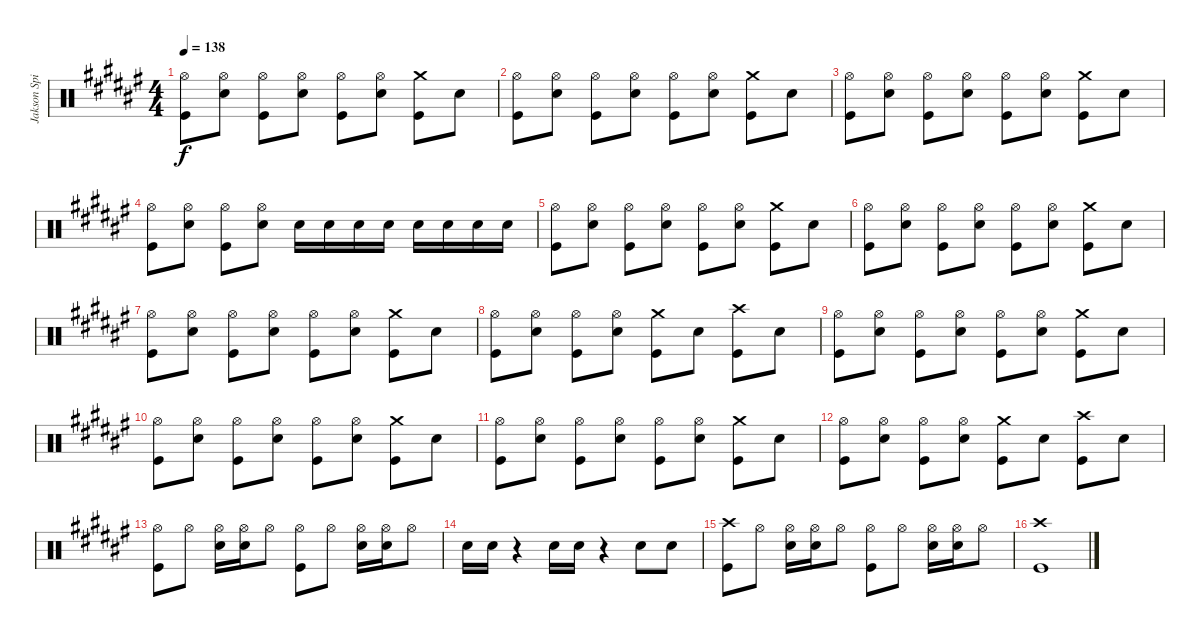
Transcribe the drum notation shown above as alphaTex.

\track ("Jakson Spires" "Jakson Spi") {instrument percussion}
\staff {score}
\articulation defaults
\ts (4 4)
\tempo 138
\clef neutral
\ks f#
("Hi-Hat (open)" "Kick (hit)").8{dy f} ("Hi-Hat (open)" "Snare (hit) 2").8 ("Hi-Hat (open)" "Kick (hit)").8 ("Hi-Hat (open)" "Snare (hit) 2").8 ("Hi-Hat (open)" "Kick (hit)").8 ("Hi-Hat (open)" "Snare (hit) 2").8 ("Crash medium (hit)" "Kick (hit)").8 "Snare (hit) 2".8 |
("Hi-Hat (open)" "Kick (hit)").8 ("Hi-Hat (open)" "Snare (hit) 2").8 ("Hi-Hat (open)" "Kick (hit)").8 ("Hi-Hat (open)" "Snare (hit) 2").8 ("Hi-Hat (open)" "Kick (hit)").8 ("Hi-Hat (open)" "Snare (hit) 2").8 ("Crash medium (hit)" "Kick (hit)").8 "Snare (hit) 2".8 |
("Hi-Hat (open)" "Kick (hit)").8 ("Hi-Hat (open)" "Snare (hit) 2").8 ("Hi-Hat (open)" "Kick (hit)").8 ("Hi-Hat (open)" "Snare (hit) 2").8 ("Hi-Hat (open)" "Kick (hit)").8 ("Hi-Hat (open)" "Snare (hit) 2").8 ("Crash medium (hit)" "Kick (hit)").8 "Snare (hit) 2".8 |
("Hi-Hat (open)" "Kick (hit)").8 ("Hi-Hat (open)" "Snare (hit) 2").8 ("Hi-Hat (open)" "Kick (hit)").8 ("Hi-Hat (open)" "Snare (hit) 2").8 "Snare (hit) 2".16 "Snare (hit) 2".16 "Snare (hit) 2".16 "Snare (hit) 2".16 "Snare (hit) 2".16 "Snare (hit) 2".16 "Snare (hit) 2".16 "Snare (hit) 2".16 |
("Hi-Hat (open)" "Kick (hit)").8 ("Hi-Hat (open)" "Snare (hit) 2").8 ("Hi-Hat (open)" "Kick (hit)").8 ("Hi-Hat (open)" "Snare (hit) 2").8 ("Hi-Hat (open)" "Kick (hit)").8 ("Hi-Hat (open)" "Snare (hit) 2").8 ("Crash medium (hit)" "Kick (hit)").8 "Snare (hit) 2".8 |
("Hi-Hat (open)" "Kick (hit)").8 ("Hi-Hat (open)" "Snare (hit) 2").8 ("Hi-Hat (open)" "Kick (hit)").8 ("Hi-Hat (open)" "Snare (hit) 2").8 ("Hi-Hat (open)" "Kick (hit)").8 ("Hi-Hat (open)" "Snare (hit) 2").8 ("Crash medium (hit)" "Kick (hit)").8 "Snare (hit) 2".8 |
("Hi-Hat (open)" "Kick (hit)").8 ("Hi-Hat (open)" "Snare (hit) 2").8 ("Hi-Hat (open)" "Kick (hit)").8 ("Hi-Hat (open)" "Snare (hit) 2").8 ("Hi-Hat (open)" "Kick (hit)").8 ("Hi-Hat (open)" "Snare (hit) 2").8 ("Crash medium (hit)" "Kick (hit)").8 "Snare (hit) 2".8 |
("Hi-Hat (open)" "Kick (hit)").8 ("Hi-Hat (open)" "Snare (hit) 2").8 ("Hi-Hat (open)" "Kick (hit)").8 ("Hi-Hat (open)" "Snare (hit) 2").8 ("Crash medium (hit)" "Kick (hit)").8 "Snare (hit) 2".8 ("Crash high (hit)" "Kick (hit)").8 "Snare (hit) 2".8 |
("Hi-Hat (open)" "Kick (hit)").8 ("Hi-Hat (open)" "Snare (hit) 2").8 ("Hi-Hat (open)" "Kick (hit)").8 ("Hi-Hat (open)" "Snare (hit) 2").8 ("Hi-Hat (open)" "Kick (hit)").8 ("Hi-Hat (open)" "Snare (hit) 2").8 ("Crash medium (hit)" "Kick (hit)").8 "Snare (hit) 2".8 |
("Hi-Hat (open)" "Kick (hit)").8 ("Hi-Hat (open)" "Snare (hit) 2").8 ("Hi-Hat (open)" "Kick (hit)").8 ("Hi-Hat (open)" "Snare (hit) 2").8 ("Hi-Hat (open)" "Kick (hit)").8 ("Hi-Hat (open)" "Snare (hit) 2").8 ("Crash medium (hit)" "Kick (hit)").8 "Snare (hit) 2".8 |
("Hi-Hat (open)" "Kick (hit)").8 ("Hi-Hat (open)" "Snare (hit) 2").8 ("Hi-Hat (open)" "Kick (hit)").8 ("Hi-Hat (open)" "Snare (hit) 2").8 ("Hi-Hat (open)" "Kick (hit)").8 ("Hi-Hat (open)" "Snare (hit) 2").8 ("Crash medium (hit)" "Kick (hit)").8 "Snare (hit) 2".8 |
("Hi-Hat (open)" "Kick (hit)").8 ("Hi-Hat (open)" "Snare (hit) 2").8 ("Hi-Hat (open)" "Kick (hit)").8 ("Hi-Hat (open)" "Snare (hit) 2").8 ("Crash medium (hit)" "Kick (hit)").8 "Snare (hit) 2".8 ("Crash high (hit)" "Kick (hit)").8 "Snare (hit) 2".8 |
("Hi-Hat (open)" "Kick (hit)").8 "Hi-Hat (open)".8 ("Hi-Hat (open)" "Snare (hit) 2").16 ("Hi-Hat (open)" "Snare (hit) 2").16 "Hi-Hat (open)".8 ("Hi-Hat (open)" "Kick (hit)").8 "Hi-Hat (open)".8 ("Hi-Hat (open)" "Snare (hit) 2").16 ("Hi-Hat (open)" "Snare (hit) 2").16 "Hi-Hat (open)".8 |
"Snare (hit) 2".16 "Snare (hit) 2".16 r.4 "Snare (hit) 2".16 "Snare (hit) 2".16 r.4 "Snare (hit) 2".8 "Snare (hit) 2".8 |
("Crash high (hit)" "Kick (hit)").8 "Hi-Hat (open)".8 ("Hi-Hat (open)" "Snare (hit) 2").16 ("Hi-Hat (open)" "Snare (hit) 2").16 "Hi-Hat (open)".8 ("Hi-Hat (open)" "Kick (hit)").8 "Hi-Hat (open)".8 ("Hi-Hat (open)" "Snare (hit) 2").16 ("Hi-Hat (open)" "Snare (hit) 2").16 "Hi-Hat (open)".8 |
("Crash high (hit)" "Kick (hit)").1
